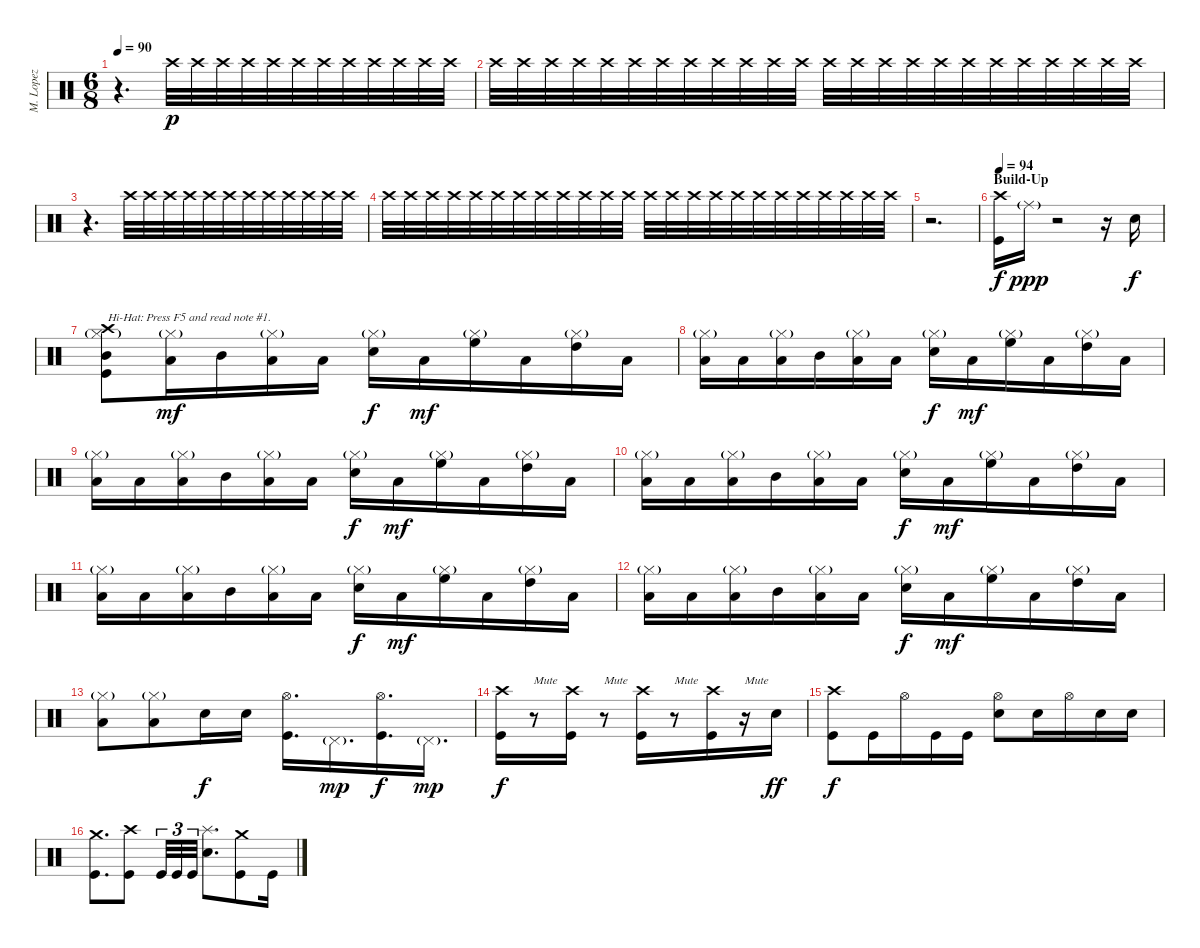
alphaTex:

\track ("M. Lopez" "M. Lopez") {instrument percussion}
\staff {score}
\articulation defaults
\ts (6 8)
\tempo 90
\clef neutral
\ks c
r.4{d dy p} "Crash high (hit)".32 "Crash high (hit)".32 "Crash high (hit)".32 "Crash high (hit)".32 "Crash high (hit)".32 "Crash high (hit)".32 "Crash high (hit)".32 "Crash high (hit)".32 "Crash high (hit)".32 "Crash high (hit)".32 "Crash high (hit)".32 "Crash high (hit)".32 |
"Crash high (hit)".32 "Crash high (hit)".32 "Crash high (hit)".32 "Crash high (hit)".32 "Crash high (hit)".32 "Crash high (hit)".32 "Crash high (hit)".32 "Crash high (hit)".32 "Crash high (hit)".32 "Crash high (hit)".32 "Crash high (hit)".32 "Crash high (hit)".32 "Crash high (hit)".32 "Crash high (hit)".32 "Crash high (hit)".32 "Crash high (hit)".32 "Crash high (hit)".32 "Crash high (hit)".32 "Crash high (hit)".32 "Crash high (hit)".32 "Crash high (hit)".32 "Crash high (hit)".32 "Crash high (hit)".32 "Crash high (hit)".32 |
r.4{d} "Crash high (hit)".32 "Crash high (hit)".32 "Crash high (hit)".32 "Crash high (hit)".32 "Crash high (hit)".32 "Crash high (hit)".32 "Crash high (hit)".32 "Crash high (hit)".32 "Crash high (hit)".32 "Crash high (hit)".32 "Crash high (hit)".32 "Crash high (hit)".32 |
"Crash high (hit)".32 "Crash high (hit)".32 "Crash high (hit)".32 "Crash high (hit)".32 "Crash high (hit)".32 "Crash high (hit)".32 "Crash high (hit)".32 "Crash high (hit)".32 "Crash high (hit)".32 "Crash high (hit)".32 "Crash high (hit)".32 "Crash high (hit)".32 "Crash high (hit)".32 "Crash high (hit)".32 "Crash high (hit)".32 "Crash high (hit)".32 "Crash high (hit)".32 "Crash high (hit)".32 "Crash high (hit)".32 "Crash high (hit)".32 "Crash high (hit)".32 "Crash high (hit)".32 "Crash high (hit)".32 "Crash high (hit)".32 |
r.2{d} |
\section ("" "Build-Up")
\tempo 94
("Crash high (hit)" "Kick (hit)").16{dy f} "Ride (middle)"{g}.16{dy ppp} r.2 r.16 "Electric Snare (hit)".16{dy f} |
("Crash high (hit)" "Hi-Hat (closed)"{g} "Mid Tom (hit)" "Kick (hit)").8{txt "Hi-Hat: Press F5 and read note #1."} ("Hi-Hat (closed)"{g} "Low Floor Tom (hit)").16{dy mf} "Mid Tom (hit)".16 ("Hi-Hat (closed)"{g} "Low Tom (hit)").16 "Low Floor Tom (hit)".16 ("Hi-Hat (closed)"{g} "Electric Snare (hit)").16{dy f} "Low Floor Tom (hit)".16{dy mf} ("Hi-Hat (closed)"{g} "High Floor Tom (hit)").16 "Low Floor Tom (hit)".16 ("Hi-Hat (closed)"{g} "High Tom (hit)").16 "Low Floor Tom (hit)".16 |
("Hi-Hat (closed)"{g} "Low Floor Tom (hit)").16 "Low Tom (hit)".16 ("Hi-Hat (closed)"{g} "Low Floor Tom (hit)").16 "Mid Tom (hit)".16 ("Hi-Hat (closed)"{g} "Low Tom (hit)").16 "Low Floor Tom (hit)".16 ("Hi-Hat (closed)"{g} "Electric Snare (hit)").16{dy f} "Low Floor Tom (hit)".16{dy mf} ("Hi-Hat (closed)"{g} "High Floor Tom (hit)").16 "Low Floor Tom (hit)".16 ("Hi-Hat (closed)"{g} "High Tom (hit)").16 "Low Floor Tom (hit)".16 |
("Hi-Hat (closed)"{g} "Low Floor Tom (hit)").16 "Low Tom (hit)".16 ("Hi-Hat (closed)"{g} "Low Floor Tom (hit)").16 "Mid Tom (hit)".16 ("Hi-Hat (closed)"{g} "Low Tom (hit)").16 "Low Floor Tom (hit)".16 ("Hi-Hat (closed)"{g} "Electric Snare (hit)").16{dy f} "Low Floor Tom (hit)".16{dy mf} ("Hi-Hat (closed)"{g} "High Floor Tom (hit)").16 "Low Floor Tom (hit)".16 ("Hi-Hat (closed)"{g} "High Tom (hit)").16 "Low Floor Tom (hit)".16 |
("Hi-Hat (closed)"{g} "Low Floor Tom (hit)").16 "Low Tom (hit)".16 ("Hi-Hat (closed)"{g} "Low Floor Tom (hit)").16 "Mid Tom (hit)".16 ("Hi-Hat (closed)"{g} "Low Tom (hit)").16 "Low Floor Tom (hit)".16 ("Hi-Hat (closed)"{g} "Electric Snare (hit)").16{dy f} "Low Floor Tom (hit)".16{dy mf} ("Hi-Hat (closed)"{g} "High Floor Tom (hit)").16 "Low Floor Tom (hit)".16 ("Hi-Hat (closed)"{g} "High Tom (hit)").16 "Low Floor Tom (hit)".16 |
("Hi-Hat (closed)"{g} "Low Floor Tom (hit)").16 "Low Tom (hit)".16 ("Hi-Hat (closed)"{g} "Low Floor Tom (hit)").16 "Mid Tom (hit)".16 ("Hi-Hat (closed)"{g} "Low Tom (hit)").16 "Low Floor Tom (hit)".16 ("Hi-Hat (closed)"{g} "Electric Snare (hit)").16{dy f} "Low Floor Tom (hit)".16{dy mf} ("Hi-Hat (closed)"{g} "High Floor Tom (hit)").16 "Low Floor Tom (hit)".16 ("Hi-Hat (closed)"{g} "High Tom (hit)").16 "Low Floor Tom (hit)".16 |
("Hi-Hat (closed)"{g} "Low Floor Tom (hit)").16 "Low Tom (hit)".16 ("Hi-Hat (closed)"{g} "Low Floor Tom (hit)").16 "Mid Tom (hit)".16 ("Hi-Hat (closed)"{g} "Low Tom (hit)").16 "Low Floor Tom (hit)".16 ("Hi-Hat (closed)"{g} "Electric Snare (hit)").16{dy f} "Low Floor Tom (hit)".16{dy mf} ("Hi-Hat (closed)"{g} "High Floor Tom (hit)").16 "Low Floor Tom (hit)".16 ("Hi-Hat (closed)"{g} "High Tom (hit)").16 "Low Floor Tom (hit)".16 |
("Hi-Hat (closed)"{g} "Low Floor Tom (hit)").8 ("Hi-Hat (closed)"{g} "Low Floor Tom (hit)").8 "Electric Snare (hit)".16{dy f} "Electric Snare (hit)".16 ("Hi-Hat (open)" "Kick (hit)").16{d} "Pedal Hi-Hat (hit)"{g}.16{d dy mp} ("Hi-Hat (open)" "Kick (hit)").16{d dy f} "Pedal Hi-Hat (hit)"{g}.16{d dy mp} |
("Crash high (hit)" "Kick (hit)").16{dy f} r.8{txt "Mute"} ("Crash high (hit)" "Kick (hit)").16 r.8{txt "Mute"} ("Crash high (hit)" "Kick (hit)").16 r.8{txt "Mute"} ("Crash high (hit)" "Kick (hit)").16 r.16{txt "Mute"} "Electric Snare (hit)".16{dy ff} |
("Crash high (hit)" "Kick (hit)").8{dy f} "Kick (hit)".16 "Hi-Hat (open)".16 "Kick (hit)".16 "Kick (hit)".16 ("Hi-Hat (open)" "Electric Snare (hit)").8 "Electric Snare (hit)".16 "Hi-Hat (open)".16 "Electric Snare (hit)".16 "Electric Snare (hit)".16 |
("Crash medium (hit)" "Kick (hit)").8{d} ("Crash high (hit)" "Kick (hit)").8 "Kick (hit)".32{tu (3 2)} "Kick (hit)".32{tu (3 2)} "Kick (hit)".32{tu (3 2)} ("Splash (hit)" "Electric Snare (hit)").8{d} ("Crash medium (hit)" "Kick (hit)").8 "Kick (hit)".16
